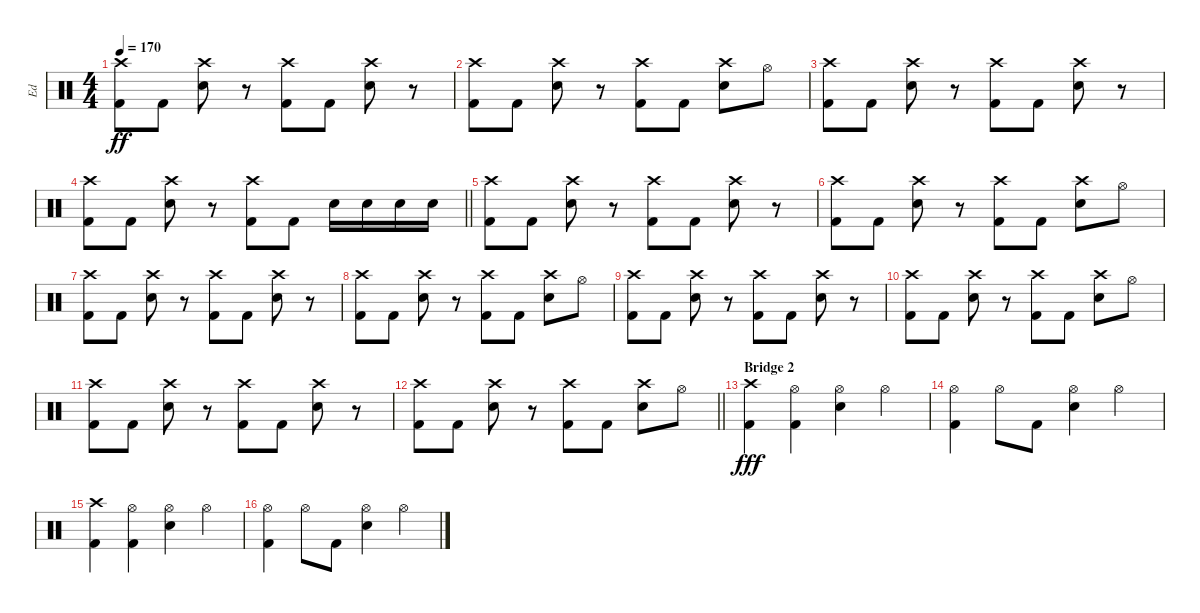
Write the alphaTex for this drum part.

\track ("Ed" "Ed") {instrument percussion}
\staff {score}
\articulation defaults
\ts (4 4)
\tempo 170
\clef neutral
\ks c
("Kick (hit) 2" "Crash high (hit)").8{dy ff} "Kick (hit) 2".8 ("Snare (hit) 2" "Crash high (hit)").8 r.8 ("Kick (hit) 2" "Crash high (hit)").8 "Kick (hit) 2".8 ("Snare (hit) 2" "Crash high (hit)").8 r.8 |
("Kick (hit) 2" "Crash high (hit)").8 "Kick (hit) 2".8 ("Snare (hit) 2" "Crash high (hit)").8 r.8 ("Kick (hit) 2" "Crash high (hit)").8 "Kick (hit) 2".8 ("Snare (hit) 2" "Crash high (hit)").8 "Hi-Hat (open)".8 |
("Kick (hit) 2" "Crash high (hit)").8 "Kick (hit) 2".8 ("Snare (hit) 2" "Crash high (hit)").8 r.8 ("Kick (hit) 2" "Crash high (hit)").8 "Kick (hit) 2".8 ("Snare (hit) 2" "Crash high (hit)").8 r.8 |
\barLineRight lightlight
("Kick (hit) 2" "Crash high (hit)").8 "Kick (hit) 2".8 ("Snare (hit) 2" "Crash high (hit)").8 r.8 ("Kick (hit) 2" "Crash high (hit)").8 "Kick (hit) 2".8 "Snare (hit) 2".16 "Snare (hit) 2".16 "Snare (hit) 2".16 "Snare (hit) 2".16 |
("Kick (hit) 2" "Crash high (hit)").8 "Kick (hit) 2".8 ("Snare (hit) 2" "Crash high (hit)").8 r.8 ("Kick (hit) 2" "Crash high (hit)").8 "Kick (hit) 2".8 ("Snare (hit) 2" "Crash high (hit)").8 r.8 |
("Kick (hit) 2" "Crash high (hit)").8 "Kick (hit) 2".8 ("Snare (hit) 2" "Crash high (hit)").8 r.8 ("Kick (hit) 2" "Crash high (hit)").8 "Kick (hit) 2".8 ("Snare (hit) 2" "Crash high (hit)").8 "Hi-Hat (open)".8 |
("Kick (hit) 2" "Crash high (hit)").8 "Kick (hit) 2".8 ("Snare (hit) 2" "Crash high (hit)").8 r.8 ("Kick (hit) 2" "Crash high (hit)").8 "Kick (hit) 2".8 ("Snare (hit) 2" "Crash high (hit)").8 r.8 |
("Kick (hit) 2" "Crash high (hit)").8 "Kick (hit) 2".8 ("Snare (hit) 2" "Crash high (hit)").8 r.8 ("Kick (hit) 2" "Crash high (hit)").8 "Kick (hit) 2".8 ("Snare (hit) 2" "Crash high (hit)").8 "Hi-Hat (open)".8 |
("Kick (hit) 2" "Crash high (hit)").8 "Kick (hit) 2".8 ("Snare (hit) 2" "Crash high (hit)").8 r.8 ("Kick (hit) 2" "Crash high (hit)").8 "Kick (hit) 2".8 ("Snare (hit) 2" "Crash high (hit)").8 r.8 |
("Kick (hit) 2" "Crash high (hit)").8 "Kick (hit) 2".8 ("Snare (hit) 2" "Crash high (hit)").8 r.8 ("Kick (hit) 2" "Crash high (hit)").8 "Kick (hit) 2".8 ("Snare (hit) 2" "Crash high (hit)").8 "Hi-Hat (open)".8 |
("Kick (hit) 2" "Crash high (hit)").8 "Kick (hit) 2".8 ("Snare (hit) 2" "Crash high (hit)").8 r.8 ("Kick (hit) 2" "Crash high (hit)").8 "Kick (hit) 2".8 ("Snare (hit) 2" "Crash high (hit)").8 r.8 |
\barLineRight lightlight
("Kick (hit) 2" "Crash high (hit)").8 "Kick (hit) 2".8 ("Snare (hit) 2" "Crash high (hit)").8 r.8 ("Kick (hit) 2" "Crash high (hit)").8 "Kick (hit) 2".8 ("Snare (hit) 2" "Crash high (hit)").8 "Hi-Hat (open)".8 |
\section ("" "Bridge 2")
("Crash high (hit)" "Kick (hit) 2").4{dy fff} ("Hi-Hat (open)" "Kick (hit) 2").4 ("Hi-Hat (open)" "Snare (hit) 2").4 "Hi-Hat (open)".4 |
("Hi-Hat (open)" "Kick (hit) 2").4 "Hi-Hat (open)".8 "Kick (hit) 2".8 ("Hi-Hat (open)" "Snare (hit) 2").4 "Hi-Hat (open)".4 |
("Crash high (hit)" "Kick (hit) 2").4 ("Hi-Hat (open)" "Kick (hit) 2").4 ("Hi-Hat (open)" "Snare (hit) 2").4 "Hi-Hat (open)".4 |
("Hi-Hat (open)" "Kick (hit) 2").4 "Hi-Hat (open)".8 "Kick (hit) 2".8 ("Hi-Hat (open)" "Snare (hit) 2").4 "Hi-Hat (open)".4
